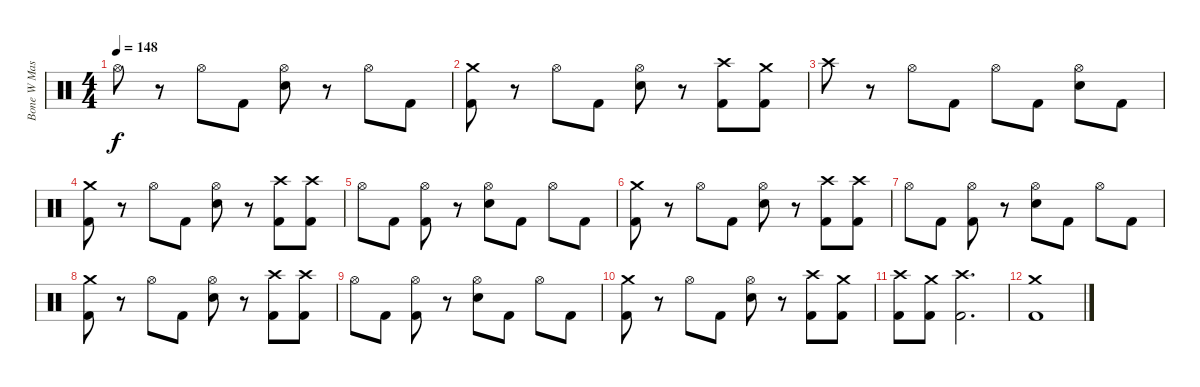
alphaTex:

\track ("Bone W Mashine" "Bone W Mas") {instrument percussion}
\staff {score}
\articulation defaults
\ts (4 4)
\tempo 148
\clef neutral
\ks c "Hi-Hat (open)".8{dy f}
r.8 "Hi-Hat (open)".8 "Kick (hit) 2".8 ("Hi-Hat (open)" "Electric Snare (hit)").8 r.8 "Hi-Hat (open)".8 "Kick (hit) 2".8 |
("Crash medium (hit)" "Kick (hit) 2").8 r.8 "Hi-Hat (open)".8 "Kick (hit) 2".8 ("Hi-Hat (open)" "Electric Snare (hit)").8 r.8 ("Crash high (hit)" "Kick (hit) 2").8 ("Crash medium (hit)" "Kick (hit) 2").8 |
"Crash high (hit)".8 r.8 "Hi-Hat (open)".8 "Kick (hit) 2".8 "Hi-Hat (open)".8 "Kick (hit) 2".8 ("Hi-Hat (open)" "Electric Snare (hit)").8 "Kick (hit) 2".8 |
("Crash medium (hit)" "Kick (hit) 2").8 r.8 "Hi-Hat (open)".8 "Kick (hit) 2".8 ("Hi-Hat (open)" "Electric Snare (hit)").8 r.8 ("Crash high (hit)" "Kick (hit) 2").8 ("Crash high (hit)" "Kick (hit) 2").8 |
"Hi-Hat (open)".8 "Kick (hit) 2".8 ("Hi-Hat (open)" "Kick (hit) 2").8 r.8 ("Hi-Hat (open)" "Electric Snare (hit)").8 "Kick (hit) 2".8 "Hi-Hat (open)".8 "Kick (hit) 2".8 |
("Crash medium (hit)" "Kick (hit) 2").8 r.8 "Hi-Hat (open)".8 "Kick (hit) 2".8 ("Hi-Hat (open)" "Electric Snare (hit)").8 r.8 ("Crash high (hit)" "Kick (hit) 2").8 ("Crash high (hit)" "Kick (hit) 2").8 |
"Hi-Hat (open)".8 "Kick (hit) 2".8 ("Hi-Hat (open)" "Kick (hit) 2").8 r.8 ("Hi-Hat (open)" "Electric Snare (hit)").8 "Kick (hit) 2".8 "Hi-Hat (open)".8 "Kick (hit) 2".8 |
("Crash medium (hit)" "Kick (hit) 2").8 r.8 "Hi-Hat (open)".8 "Kick (hit) 2".8 ("Hi-Hat (open)" "Electric Snare (hit)").8 r.8 ("Crash high (hit)" "Kick (hit) 2").8 ("Crash high (hit)" "Kick (hit) 2").8 |
"Hi-Hat (open)".8 "Kick (hit) 2".8 ("Hi-Hat (open)" "Kick (hit) 2").8 r.8 ("Hi-Hat (open)" "Electric Snare (hit)").8 "Kick (hit) 2".8 "Hi-Hat (open)".8 "Kick (hit) 2".8 |
("Crash medium (hit)" "Kick (hit) 2").8 r.8 "Hi-Hat (open)".8 "Kick (hit) 2".8 ("Hi-Hat (open)" "Electric Snare (hit)").8 r.8 ("Crash high (hit)" "Kick (hit) 2").8 ("Crash medium (hit)" "Kick (hit) 2").8 |
("Crash high (hit)" "Kick (hit) 2").8 ("Crash medium (hit)" "Kick (hit) 2").8 ("Crash high (hit)" "Kick (hit) 2").2{d} |
("Crash medium (hit)" "Kick (hit) 2").1
